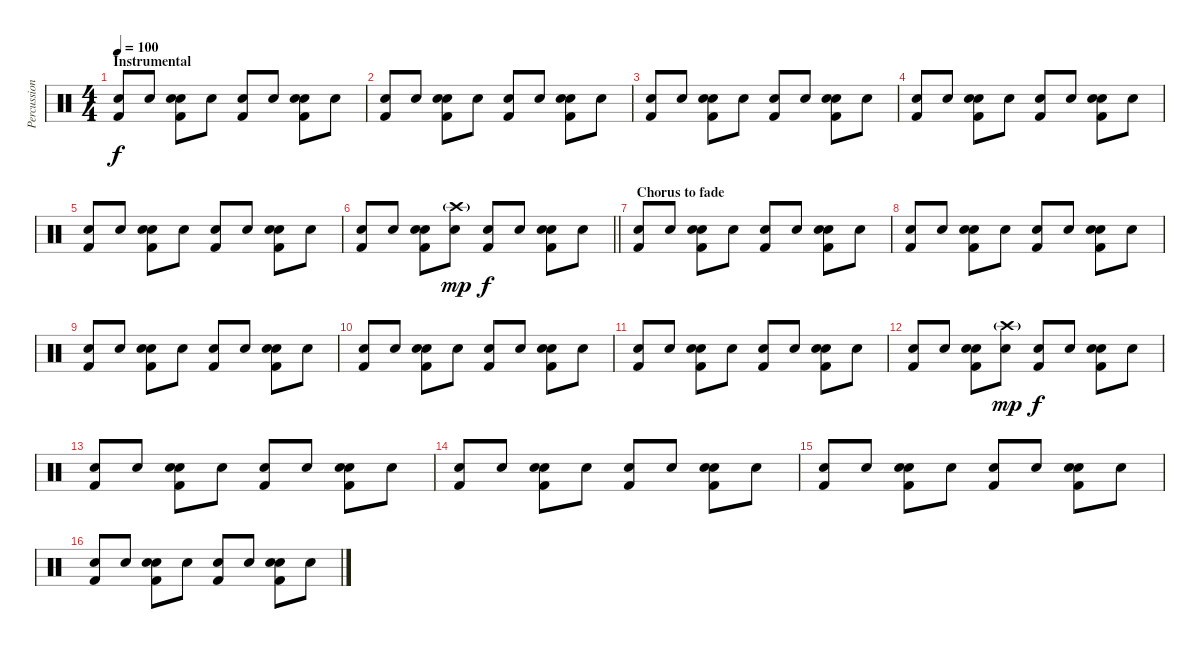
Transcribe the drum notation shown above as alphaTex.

\track ("Percussion" "Percussion") {instrument percussion}
\staff {score}
\articulation defaults
\ts (4 4)
\section ("" "Instrumental")
\tempo 100
\clef neutral
\ks c
("Snare (hit) 2" "Kick (hit) 2").8{dy f} "Snare (hit) 2".8 ("Hand Clap (hit)" "Snare (hit) 2" "Kick (hit) 2").8 "Snare (hit) 2".8 ("Snare (hit) 2" "Kick (hit) 2").8 "Snare (hit) 2".8 ("Hand Clap (hit)" "Snare (hit) 2" "Kick (hit) 2").8 "Snare (hit) 2".8 |
("Snare (hit) 2" "Kick (hit) 2").8 "Snare (hit) 2".8 ("Hand Clap (hit)" "Snare (hit) 2" "Kick (hit) 2").8 "Snare (hit) 2".8 ("Snare (hit) 2" "Kick (hit) 2").8 "Snare (hit) 2".8 ("Hand Clap (hit)" "Snare (hit) 2" "Kick (hit) 2").8 "Snare (hit) 2".8 |
("Snare (hit) 2" "Kick (hit) 2").8 "Snare (hit) 2".8 ("Hand Clap (hit)" "Snare (hit) 2" "Kick (hit) 2").8 "Snare (hit) 2".8 ("Snare (hit) 2" "Kick (hit) 2").8 "Snare (hit) 2".8 ("Hand Clap (hit)" "Snare (hit) 2" "Kick (hit) 2").8 "Snare (hit) 2".8 |
("Snare (hit) 2" "Kick (hit) 2").8 "Snare (hit) 2".8 ("Hand Clap (hit)" "Snare (hit) 2" "Kick (hit) 2").8 "Snare (hit) 2".8 ("Snare (hit) 2" "Kick (hit) 2").8 "Snare (hit) 2".8 ("Hand Clap (hit)" "Snare (hit) 2" "Kick (hit) 2").8 "Snare (hit) 2".8 |
("Snare (hit) 2" "Kick (hit) 2").8 "Snare (hit) 2".8 ("Hand Clap (hit)" "Snare (hit) 2" "Kick (hit) 2").8 "Snare (hit) 2".8 ("Snare (hit) 2" "Kick (hit) 2").8 "Snare (hit) 2".8 ("Hand Clap (hit)" "Snare (hit) 2" "Kick (hit) 2").8 "Snare (hit) 2".8 |
\barLineRight lightlight
("Snare (hit) 2" "Kick (hit) 2").8 "Snare (hit) 2".8 ("Hand Clap (hit)" "Snare (hit) 2" "Kick (hit) 2").8 ("Crash high (hit)"{g} "Snare (hit) 2").8{dy mp} ("Snare (hit) 2" "Kick (hit) 2").8{dy f} "Snare (hit) 2".8 ("Hand Clap (hit)" "Snare (hit) 2" "Kick (hit) 2").8 "Snare (hit) 2".8 |
\section ("" " Chorus to fade")
("Snare (hit) 2" "Kick (hit) 2").8 "Snare (hit) 2".8 ("Hand Clap (hit)" "Snare (hit) 2" "Kick (hit) 2").8 "Snare (hit) 2".8 ("Snare (hit) 2" "Kick (hit) 2").8 "Snare (hit) 2".8 ("Hand Clap (hit)" "Snare (hit) 2" "Kick (hit) 2").8 "Snare (hit) 2".8 |
("Snare (hit) 2" "Kick (hit) 2").8 "Snare (hit) 2".8 ("Hand Clap (hit)" "Snare (hit) 2" "Kick (hit) 2").8 "Snare (hit) 2".8 ("Snare (hit) 2" "Kick (hit) 2").8 "Snare (hit) 2".8 ("Hand Clap (hit)" "Snare (hit) 2" "Kick (hit) 2").8 "Snare (hit) 2".8 |
("Snare (hit) 2" "Kick (hit) 2").8 "Snare (hit) 2".8 ("Hand Clap (hit)" "Snare (hit) 2" "Kick (hit) 2").8 "Snare (hit) 2".8 ("Snare (hit) 2" "Kick (hit) 2").8 "Snare (hit) 2".8 ("Hand Clap (hit)" "Snare (hit) 2" "Kick (hit) 2").8 "Snare (hit) 2".8 |
("Snare (hit) 2" "Kick (hit) 2").8 "Snare (hit) 2".8 ("Hand Clap (hit)" "Snare (hit) 2" "Kick (hit) 2").8 "Snare (hit) 2".8 ("Snare (hit) 2" "Kick (hit) 2").8 "Snare (hit) 2".8 ("Hand Clap (hit)" "Snare (hit) 2" "Kick (hit) 2").8 "Snare (hit) 2".8 |
("Snare (hit) 2" "Kick (hit) 2").8 "Snare (hit) 2".8 ("Hand Clap (hit)" "Snare (hit) 2" "Kick (hit) 2").8 "Snare (hit) 2".8 ("Snare (hit) 2" "Kick (hit) 2").8 "Snare (hit) 2".8 ("Hand Clap (hit)" "Snare (hit) 2" "Kick (hit) 2").8 "Snare (hit) 2".8 |
("Snare (hit) 2" "Kick (hit) 2").8 "Snare (hit) 2".8 ("Hand Clap (hit)" "Snare (hit) 2" "Kick (hit) 2").8 ("Crash high (hit)"{g} "Snare (hit) 2").8{dy mp} ("Snare (hit) 2" "Kick (hit) 2").8{dy f} "Snare (hit) 2".8 ("Hand Clap (hit)" "Snare (hit) 2" "Kick (hit) 2").8 "Snare (hit) 2".8 |
("Snare (hit) 2" "Kick (hit) 2").8 "Snare (hit) 2".8 ("Hand Clap (hit)" "Snare (hit) 2" "Kick (hit) 2").8 "Snare (hit) 2".8 ("Snare (hit) 2" "Kick (hit) 2").8 "Snare (hit) 2".8 ("Hand Clap (hit)" "Snare (hit) 2" "Kick (hit) 2").8 "Snare (hit) 2".8 |
("Snare (hit) 2" "Kick (hit) 2").8 "Snare (hit) 2".8 ("Hand Clap (hit)" "Snare (hit) 2" "Kick (hit) 2").8 "Snare (hit) 2".8 ("Snare (hit) 2" "Kick (hit) 2").8 "Snare (hit) 2".8 ("Hand Clap (hit)" "Snare (hit) 2" "Kick (hit) 2").8 "Snare (hit) 2".8 |
("Snare (hit) 2" "Kick (hit) 2").8 "Snare (hit) 2".8 ("Hand Clap (hit)" "Snare (hit) 2" "Kick (hit) 2").8 "Snare (hit) 2".8 ("Snare (hit) 2" "Kick (hit) 2").8 "Snare (hit) 2".8 ("Hand Clap (hit)" "Snare (hit) 2" "Kick (hit) 2").8 "Snare (hit) 2".8 |
("Snare (hit) 2" "Kick (hit) 2").8 "Snare (hit) 2".8 ("Hand Clap (hit)" "Snare (hit) 2" "Kick (hit) 2").8 "Snare (hit) 2".8 ("Snare (hit) 2" "Kick (hit) 2").8 "Snare (hit) 2".8 ("Hand Clap (hit)" "Snare (hit) 2" "Kick (hit) 2").8 "Snare (hit) 2".8
